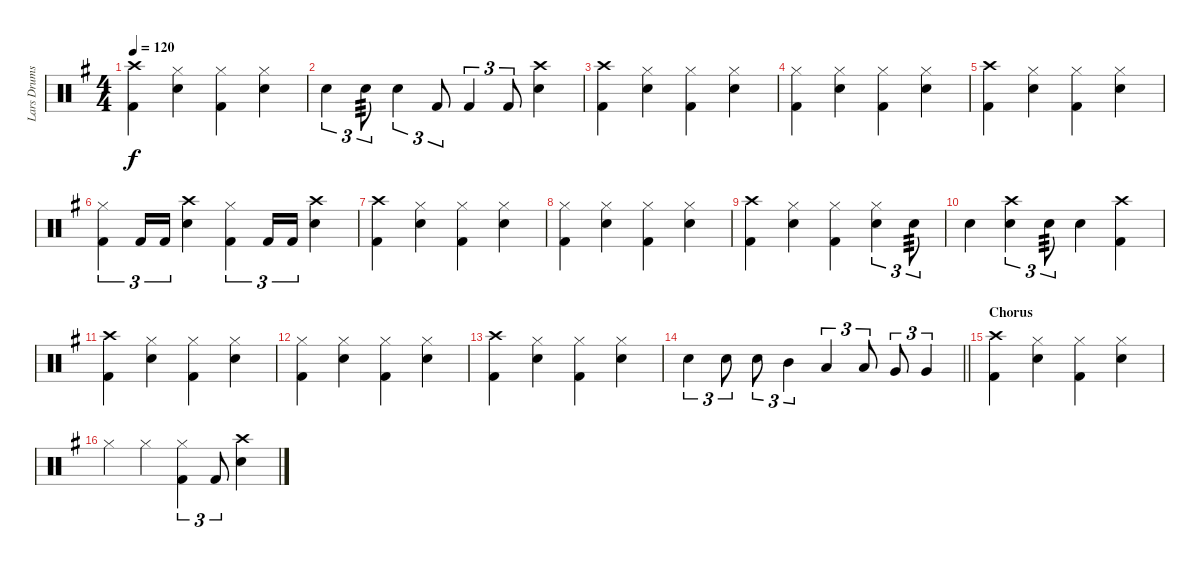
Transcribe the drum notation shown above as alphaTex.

\track ("Lars Drums" "Lars Drums") {instrument percussion}
\staff {score}
\articulation defaults
\ts (4 4)
\tempo 120
\clef neutral
\ks g
("Crash high (hit)" "Kick (hit) 2").4{dy f} ("Hi-Hat (closed)" "Snare (hit) 2").4 ("Hi-Hat (closed)" "Kick (hit) 2").4 ("Hi-Hat (closed)" "Snare (hit) 2").4 |
"Snare (hit) 2".4{tu (3 2)} "Snare (hit) 2".8{tu (3 2) tp 3} "Snare (hit) 2".4{tu (3 2)} "Kick (hit) 2".8{tu (3 2)} "Kick (hit) 2".4{tu (3 2)} "Kick (hit) 2".8{tu (3 2)} ("Crash high (hit)" "Snare (hit) 2").4 |
("Crash high (hit)" "Kick (hit) 2").4 ("Hi-Hat (closed)" "Snare (hit) 2").4 ("Hi-Hat (closed)" "Kick (hit) 2").4 ("Hi-Hat (closed)" "Snare (hit) 2").4 |
("Hi-Hat (closed)" "Kick (hit) 2").4 ("Hi-Hat (closed)" "Snare (hit) 2").4 ("Hi-Hat (closed)" "Kick (hit) 2").4 ("Hi-Hat (closed)" "Snare (hit) 2").4 |
("Crash high (hit)" "Kick (hit) 2").4 ("Hi-Hat (closed)" "Snare (hit) 2").4 ("Hi-Hat (closed)" "Kick (hit) 2").4 ("Hi-Hat (closed)" "Snare (hit) 2").4 |
("Hi-Hat (closed)" "Kick (hit) 2").4{tu (3 2)} "Kick (hit) 2".16{tu (3 2)} "Kick (hit) 2".16{tu (3 2)} ("Crash high (hit)" "Snare (hit) 2").4 ("Hi-Hat (closed)" "Kick (hit) 2").4{tu (3 2)} "Kick (hit) 2".16{tu (3 2)} "Kick (hit) 2".16{tu (3 2)} ("Crash high (hit)" "Snare (hit) 2").4 |
("Crash high (hit)" "Kick (hit) 2").4 ("Hi-Hat (closed)" "Snare (hit) 2").4 ("Hi-Hat (closed)" "Kick (hit) 2").4 ("Hi-Hat (closed)" "Snare (hit) 2").4 |
("Hi-Hat (closed)" "Kick (hit) 2").4 ("Hi-Hat (closed)" "Snare (hit) 2").4 ("Hi-Hat (closed)" "Kick (hit) 2").4 ("Hi-Hat (closed)" "Snare (hit) 2").4 |
("Crash high (hit)" "Kick (hit) 2").4 ("Hi-Hat (closed)" "Snare (hit) 2").4 ("Hi-Hat (closed)" "Kick (hit) 2").4 ("Hi-Hat (closed)" "Snare (hit) 2").4{tu (3 2)} "Snare (hit) 2".8{tu (3 2) tp 3} |
"Snare (hit) 2".4 ("Crash high (hit)" "Snare (hit) 2").4{tu (3 2)} "Snare (hit) 2".8{tu (3 2) tp 3} "Snare (hit) 2".4 ("Crash high (hit)" "Kick (hit) 2").4 |
("Crash high (hit)" "Kick (hit) 2").4 ("Hi-Hat (closed)" "Snare (hit) 2").4 ("Hi-Hat (closed)" "Kick (hit) 2").4 ("Hi-Hat (closed)" "Snare (hit) 2").4 |
("Hi-Hat (closed)" "Kick (hit) 2").4 ("Hi-Hat (closed)" "Snare (hit) 2").4 ("Hi-Hat (closed)" "Kick (hit) 2").4 ("Hi-Hat (closed)" "Snare (hit) 2").4 |
("Crash high (hit)" "Kick (hit) 2").4 ("Hi-Hat (closed)" "Snare (hit) 2").4 ("Hi-Hat (closed)" "Kick (hit) 2").4 ("Hi-Hat (closed)" "Snare (hit) 2").4 |
\barLineRight lightlight "Snare (hit) 2".4{tu (3 2)} "Snare (hit) 2".8{tu (3 2)} "Snare (hit) 2".8{tu (3 2)} "Mid Tom (hit)".4{tu (3 2)} "Low Tom (hit)".4{tu (3 2)} "Low Tom (hit)".8{tu (3 2)} "Very Low Tom (hit)".8{tu (3 2)} "Very Low Tom (hit)".4{tu (3 2)}
|
\section ("" "Chorus")
("Crash high (hit)" "Kick (hit) 2").4 ("Hi-Hat (closed)" "Snare (hit) 2").4 ("Hi-Hat (closed)" "Kick (hit) 2").4 ("Hi-Hat (closed)" "Snare (hit) 2").4 |
"Hi-Hat (closed)".4 "Hi-Hat (closed)".4 ("Hi-Hat (closed)" "Kick (hit) 2").4{tu (3 2)} "Kick (hit) 2".8{tu (3 2)} ("Crash high (hit)" "Snare (hit) 2").4
